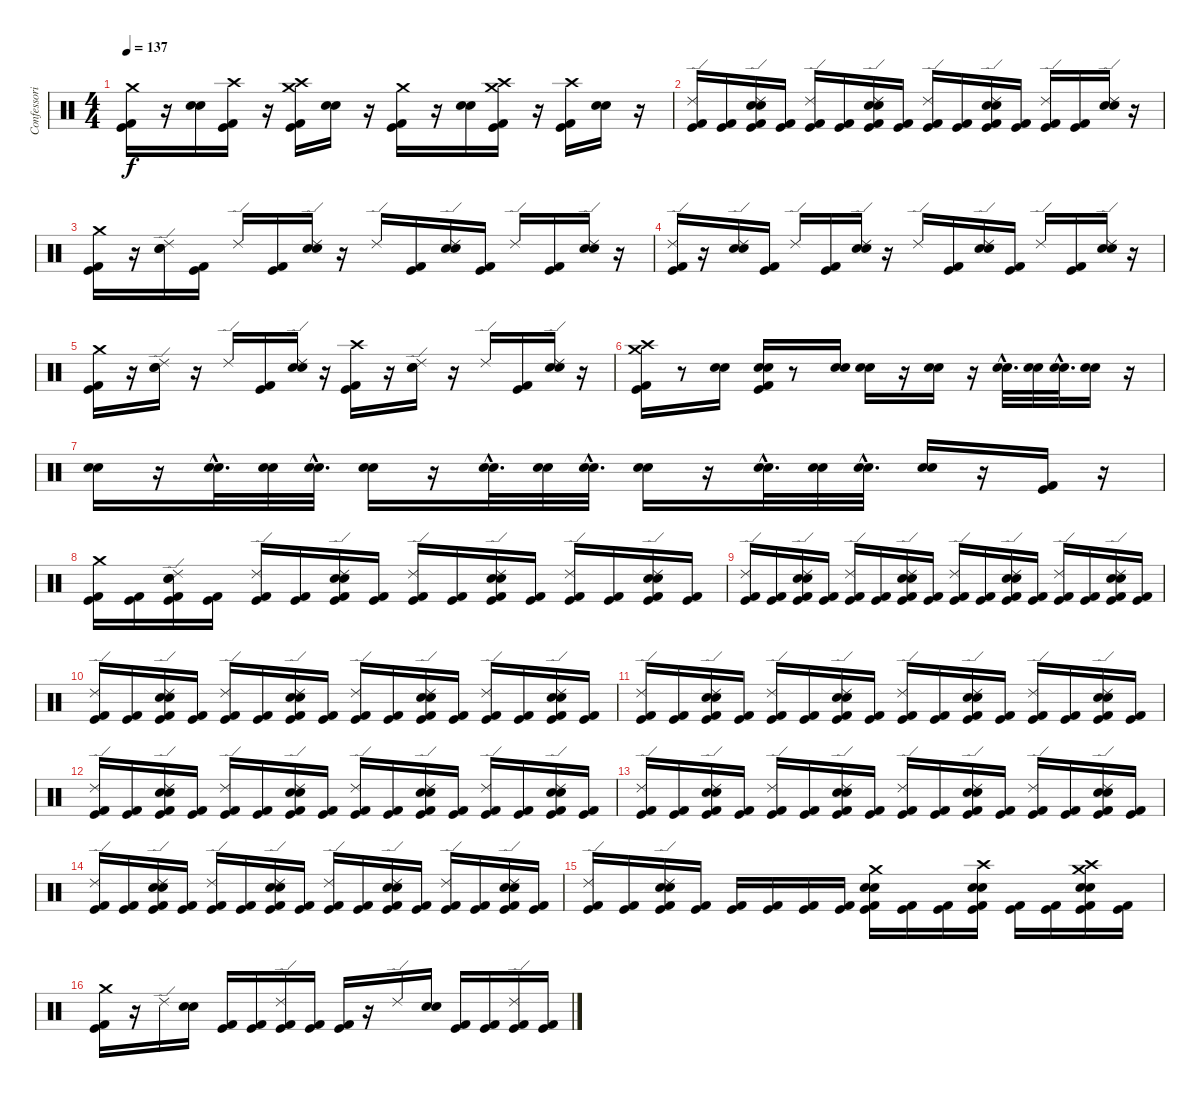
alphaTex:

\track ("Confessori" "Confessori") {instrument percussion}
\staff {score}
\articulation defaults
\ts (4 4)
\tempo 137
\clef neutral
\ks c
("Crash medium (hit)" "Kick (hit) 2" "Kick (hit)").16{dy f} r.16 ("Electric Snare (hit)" "Snare (hit) 2").16 ("Crash high (hit)" "Kick (hit)" "Kick (hit) 2").16 r.16 ("Crash high (hit)" "Crash medium (hit)" "Kick (hit) 2" "Kick (hit)").16 ("Electric Snare (hit)" "Snare (hit) 2").16 r.16 ("Crash medium (hit)" "Kick (hit) 2" "Kick (hit)").16 r.16 ("Electric Snare (hit)" "Snare (hit) 2").16 ("Crash medium (hit)" "Crash high (hit)" "Kick (hit) 2" "Kick (hit)").16 r.16 ("Crash high (hit)" "Kick (hit) 2" "Kick (hit)").16 ("Electric Snare (hit)" "Snare (hit) 2").16 r.16 |
("Ride (edge) 2" "Kick (hit) 2" "Kick (hit)").16 ("Kick (hit) 2" "Kick (hit)").16 ("Electric Snare (hit)" "Snare (hit) 2" "Ride (edge) 2" "Kick (hit) 2" "Kick (hit)").16 ("Kick (hit) 2" "Kick (hit)").16 ("Ride (edge) 2" "Kick (hit) 2" "Kick (hit)").16 ("Kick (hit) 2" "Kick (hit)").16 ("Electric Snare (hit)" "Snare (hit) 2" "Ride (edge) 2" "Kick (hit) 2" "Kick (hit)").16 ("Kick (hit) 2" "Kick (hit)").16 ("Ride (edge) 2" "Kick (hit) 2" "Kick (hit)").16 ("Kick (hit) 2" "Kick (hit)").16 ("Electric Snare (hit)" "Snare (hit) 2" "Ride (edge) 2" "Kick (hit) 2" "Kick (hit)").16 ("Kick (hit) 2" "Kick (hit)").16 ("Ride (edge) 2" "Kick (hit) 2" "Kick (hit)").16 ("Kick (hit) 2" "Kick (hit)").16 ("Ride (edge) 2" "Electric Snare (hit)" "Snare (hit) 2").16 r.16 |
("Crash medium (hit)" "Kick (hit) 2" "Kick (hit)").16 r.16 ("Electric Snare (hit)" "Snare (hit) 2" "Ride (edge) 2").16 ("Kick (hit) 2" "Kick (hit)").16 "Ride (edge) 2".16 ("Kick (hit) 2" "Kick (hit)").16 ("Electric Snare (hit)" "Snare (hit) 2" "Ride (edge) 2").16 r.16 "Ride (edge) 2".16 ("Kick (hit) 2" "Kick (hit)").16 ("Electric Snare (hit)" "Snare (hit) 2" "Ride (edge) 2").16 ("Kick (hit) 2" "Kick (hit)").16 "Ride (edge) 2".16 ("Kick (hit) 2" "Kick (hit)").16 ("Electric Snare (hit)" "Snare (hit) 2" "Ride (edge) 2").16 r.16 |
("Ride (edge) 2" "Kick (hit) 2" "Kick (hit)").16 r.16 ("Ride (edge) 2" "Electric Snare (hit)" "Snare (hit) 2").16 ("Kick (hit) 2" "Kick (hit)").16 "Ride (edge) 2".16 ("Kick (hit) 2" "Kick (hit)").16 ("Electric Snare (hit)" "Snare (hit) 2" "Ride (edge) 2").16 r.16 "Ride (edge) 2".16 ("Kick (hit) 2" "Kick (hit)").16 ("Electric Snare (hit)" "Snare (hit) 2" "Ride (edge) 2").16 ("Kick (hit) 2" "Kick (hit)").16 "Ride (edge) 2".16 ("Kick (hit) 2" "Kick (hit)").16 ("Electric Snare (hit)" "Snare (hit) 2" "Ride (edge) 2").16 r.16 |
("Kick (hit) 2" "Kick (hit)" "Crash medium (hit)").16 r.16 ("Electric Snare (hit)" "Snare (hit) 2" "Ride (edge) 2").16 r.16 "Ride (edge) 2".16 ("Kick (hit) 2" "Kick (hit)").16 ("Electric Snare (hit)" "Snare (hit) 2" "Ride (edge) 2").16 r.16 ("Crash high (hit)" "Kick (hit) 2" "Kick (hit)").16 r.16 ("Ride (edge) 2" "Electric Snare (hit)" "Snare (hit) 2").16 r.16 "Ride (edge) 2".16 ("Kick (hit)" "Kick (hit) 2").16 ("Ride (edge) 2" "Electric Snare (hit)" "Snare (hit) 2").16 r.16 |
("Crash high (hit)" "Crash medium (hit)" "Kick (hit) 2" "Kick (hit)").16 r.8 ("Electric Snare (hit)" "Snare (hit) 2").16 ("Electric Snare (hit)" "Snare (hit) 2" "Kick (hit) 2" "Kick (hit)").16 r.8 ("Electric Snare (hit)" "Snare (hit) 2").16 ("Electric Snare (hit)" "Snare (hit) 2").16 r.16 ("Electric Snare (hit)" "Snare (hit) 2").16 r.16 ("Electric Snare (hit)"{hac} "Snare (hit) 2"{hac}).32{d} ("Electric Snare (hit)" "Snare (hit) 2").32 ("Electric Snare (hit)"{hac} "Snare (hit) 2"{hac}).32{d} ("Electric Snare (hit)" "Snare (hit) 2").16 r.16 |
("Electric Snare (hit)" "Snare (hit) 2").16 r.16 ("Electric Snare (hit)"{hac} "Snare (hit) 2"{hac}).32{d} ("Electric Snare (hit)" "Snare (hit) 2").32 ("Electric Snare (hit)"{hac} "Snare (hit) 2"{hac}).32{d} ("Electric Snare (hit)" "Snare (hit) 2").16 r.16 ("Electric Snare (hit)"{hac} "Snare (hit) 2"{hac}).32{d} ("Electric Snare (hit)" "Snare (hit) 2").32 ("Electric Snare (hit)"{hac} "Snare (hit) 2"{hac}).32{d} ("Electric Snare (hit)" "Snare (hit) 2").16 r.16 ("Electric Snare (hit)"{hac} "Snare (hit) 2"{hac}).32{d} ("Electric Snare (hit)" "Snare (hit) 2").32 ("Electric Snare (hit)"{hac} "Snare (hit) 2"{hac}).32{d} ("Electric Snare (hit)" "Snare (hit) 2").16 r.16 ("Kick (hit) 2" "Kick (hit)").16 r.16 |
("Crash medium (hit)" "Kick (hit) 2" "Kick (hit)").16 ("Kick (hit) 2" "Kick (hit)").16 ("Electric Snare (hit)" "Snare (hit) 2" "Ride (edge) 2" "Kick (hit) 2" "Kick (hit)").16 ("Kick (hit) 2" "Kick (hit)").16 ("Ride (edge) 2" "Kick (hit) 2" "Kick (hit)").16 ("Kick (hit) 2" "Kick (hit)").16 ("Electric Snare (hit)" "Snare (hit) 2" "Ride (edge) 2" "Kick (hit) 2" "Kick (hit)").16 ("Kick (hit) 2" "Kick (hit)").16 ("Ride (edge) 2" "Kick (hit) 2" "Kick (hit)").16 ("Kick (hit) 2" "Kick (hit)").16 ("Electric Snare (hit)" "Snare (hit) 2" "Ride (edge) 2" "Kick (hit) 2" "Kick (hit)").16 ("Kick (hit) 2" "Kick (hit)").16 ("Ride (edge) 2" "Kick (hit) 2" "Kick (hit)").16 ("Kick (hit) 2" "Kick (hit)").16 ("Electric Snare (hit)" "Snare (hit) 2" "Ride (edge) 2" "Kick (hit) 2" "Kick (hit)").16 ("Kick (hit) 2" "Kick (hit)").16 |
("Ride (edge) 2" "Kick (hit) 2" "Kick (hit)").16 ("Kick (hit) 2" "Kick (hit)").16 ("Electric Snare (hit)" "Snare (hit) 2" "Ride (edge) 2" "Kick (hit) 2" "Kick (hit)").16 ("Kick (hit) 2" "Kick (hit)").16 ("Ride (edge) 2" "Kick (hit) 2" "Kick (hit)").16 ("Kick (hit) 2" "Kick (hit)").16 ("Electric Snare (hit)" "Snare (hit) 2" "Ride (edge) 2" "Kick (hit) 2" "Kick (hit)").16 ("Kick (hit) 2" "Kick (hit)").16 ("Ride (edge) 2" "Kick (hit) 2" "Kick (hit)").16 ("Kick (hit) 2" "Kick (hit)").16 ("Electric Snare (hit)" "Snare (hit) 2" "Ride (edge) 2" "Kick (hit) 2" "Kick (hit)").16 ("Kick (hit) 2" "Kick (hit)").16 ("Ride (edge) 2" "Kick (hit) 2" "Kick (hit)").16 ("Kick (hit) 2" "Kick (hit)").16 ("Electric Snare (hit)" "Snare (hit) 2" "Ride (edge) 2" "Kick (hit) 2" "Kick (hit)").16 ("Kick (hit) 2" "Kick (hit)").16 |
("Ride (edge) 2" "Kick (hit) 2" "Kick (hit)").16 ("Kick (hit) 2" "Kick (hit)").16 ("Electric Snare (hit)" "Snare (hit) 2" "Ride (edge) 2" "Kick (hit) 2" "Kick (hit)").16 ("Kick (hit) 2" "Kick (hit)").16 ("Ride (edge) 2" "Kick (hit) 2" "Kick (hit)").16 ("Kick (hit) 2" "Kick (hit)").16 ("Electric Snare (hit)" "Snare (hit) 2" "Ride (edge) 2" "Kick (hit) 2" "Kick (hit)").16 ("Kick (hit) 2" "Kick (hit)").16 ("Ride (edge) 2" "Kick (hit) 2" "Kick (hit)").16 ("Kick (hit) 2" "Kick (hit)").16 ("Electric Snare (hit)" "Snare (hit) 2" "Ride (edge) 2" "Kick (hit) 2" "Kick (hit)").16 ("Kick (hit) 2" "Kick (hit)").16 ("Ride (edge) 2" "Kick (hit) 2" "Kick (hit)").16 ("Kick (hit) 2" "Kick (hit)").16 ("Electric Snare (hit)" "Snare (hit) 2" "Ride (edge) 2" "Kick (hit) 2" "Kick (hit)").16 ("Kick (hit) 2" "Kick (hit)").16 |
("Ride (edge) 2" "Kick (hit) 2" "Kick (hit)").16 ("Kick (hit) 2" "Kick (hit)").16 ("Electric Snare (hit)" "Snare (hit) 2" "Ride (edge) 2" "Kick (hit) 2" "Kick (hit)").16 ("Kick (hit) 2" "Kick (hit)").16 ("Ride (edge) 2" "Kick (hit) 2" "Kick (hit)").16 ("Kick (hit) 2" "Kick (hit)").16 ("Electric Snare (hit)" "Snare (hit) 2" "Ride (edge) 2" "Kick (hit) 2" "Kick (hit)").16 ("Kick (hit) 2" "Kick (hit)").16 ("Ride (edge) 2" "Kick (hit) 2" "Kick (hit)").16 ("Kick (hit) 2" "Kick (hit)").16 ("Electric Snare (hit)" "Snare (hit) 2" "Ride (edge) 2" "Kick (hit) 2" "Kick (hit)").16 ("Kick (hit) 2" "Kick (hit)").16 ("Ride (edge) 2" "Kick (hit) 2" "Kick (hit)").16 ("Kick (hit) 2" "Kick (hit)").16 ("Electric Snare (hit)" "Snare (hit) 2" "Ride (edge) 2" "Kick (hit) 2" "Kick (hit)").16 ("Kick (hit) 2" "Kick (hit)").16 |
("Ride (edge) 2" "Kick (hit) 2" "Kick (hit)").16 ("Kick (hit) 2" "Kick (hit)").16 ("Electric Snare (hit)" "Snare (hit) 2" "Ride (edge) 2" "Kick (hit) 2" "Kick (hit)").16 ("Kick (hit) 2" "Kick (hit)").16 ("Ride (edge) 2" "Kick (hit) 2" "Kick (hit)").16 ("Kick (hit) 2" "Kick (hit)").16 ("Electric Snare (hit)" "Snare (hit) 2" "Ride (edge) 2" "Kick (hit) 2" "Kick (hit)").16 ("Kick (hit) 2" "Kick (hit)").16 ("Ride (edge) 2" "Kick (hit) 2" "Kick (hit)").16 ("Kick (hit) 2" "Kick (hit)").16 ("Electric Snare (hit)" "Snare (hit) 2" "Ride (edge) 2" "Kick (hit) 2" "Kick (hit)").16 ("Kick (hit) 2" "Kick (hit)").16 ("Ride (edge) 2" "Kick (hit) 2" "Kick (hit)").16 ("Kick (hit) 2" "Kick (hit)").16 ("Electric Snare (hit)" "Snare (hit) 2" "Ride (edge) 2" "Kick (hit) 2" "Kick (hit)").16 ("Kick (hit) 2" "Kick (hit)").16 |
("Ride (edge) 2" "Kick (hit) 2" "Kick (hit)").16 ("Kick (hit) 2" "Kick (hit)").16 ("Electric Snare (hit)" "Snare (hit) 2" "Ride (edge) 2" "Kick (hit) 2" "Kick (hit)").16 ("Kick (hit) 2" "Kick (hit)").16 ("Ride (edge) 2" "Kick (hit) 2" "Kick (hit)").16 ("Kick (hit) 2" "Kick (hit)").16 ("Electric Snare (hit)" "Snare (hit) 2" "Ride (edge) 2" "Kick (hit) 2" "Kick (hit)").16 ("Kick (hit) 2" "Kick (hit)").16 ("Ride (edge) 2" "Kick (hit) 2" "Kick (hit)").16 ("Kick (hit) 2" "Kick (hit)").16 ("Electric Snare (hit)" "Snare (hit) 2" "Ride (edge) 2" "Kick (hit) 2" "Kick (hit)").16 ("Kick (hit) 2" "Kick (hit)").16 ("Ride (edge) 2" "Kick (hit) 2" "Kick (hit)").16 ("Kick (hit) 2" "Kick (hit)").16 ("Electric Snare (hit)" "Snare (hit) 2" "Ride (edge) 2" "Kick (hit) 2" "Kick (hit)").16 ("Kick (hit) 2" "Kick (hit)").16 |
("Ride (edge) 2" "Kick (hit) 2" "Kick (hit)").16 ("Kick (hit) 2" "Kick (hit)").16 ("Electric Snare (hit)" "Snare (hit) 2" "Ride (edge) 2" "Kick (hit) 2" "Kick (hit)").16 ("Kick (hit) 2" "Kick (hit)").16 ("Ride (edge) 2" "Kick (hit) 2" "Kick (hit)").16 ("Kick (hit) 2" "Kick (hit)").16 ("Electric Snare (hit)" "Snare (hit) 2" "Ride (edge) 2" "Kick (hit) 2" "Kick (hit)").16 ("Kick (hit) 2" "Kick (hit)").16 ("Ride (edge) 2" "Kick (hit) 2" "Kick (hit)").16 ("Kick (hit) 2" "Kick (hit)").16 ("Electric Snare (hit)" "Snare (hit) 2" "Ride (edge) 2" "Kick (hit) 2" "Kick (hit)").16 ("Kick (hit) 2" "Kick (hit)").16 ("Ride (edge) 2" "Kick (hit) 2" "Kick (hit)").16 ("Kick (hit) 2" "Kick (hit)").16 ("Electric Snare (hit)" "Snare (hit) 2" "Ride (edge) 2" "Kick (hit) 2" "Kick (hit)").16 ("Kick (hit) 2" "Kick (hit)").16 |
("Ride (edge) 2" "Kick (hit) 2" "Kick (hit)").16 ("Kick (hit) 2" "Kick (hit)").16 ("Electric Snare (hit)" "Snare (hit) 2" "Ride (edge) 2" "Kick (hit) 2" "Kick (hit)").16 ("Kick (hit) 2" "Kick (hit)").16 ("Kick (hit) 2" "Kick (hit)").16 ("Kick (hit) 2" "Kick (hit)").16 ("Kick (hit) 2" "Kick (hit)").16 ("Kick (hit) 2" "Kick (hit)").16 ("Electric Snare (hit)" "Snare (hit) 2" "Crash medium (hit)" "Kick (hit) 2" "Kick (hit)").16 ("Kick (hit) 2" "Kick (hit)").16 ("Kick (hit) 2" "Kick (hit)").16 ("Electric Snare (hit)" "Snare (hit) 2" "Crash high (hit)" "Kick (hit) 2" "Kick (hit)").16 ("Kick (hit) 2" "Kick (hit)").16 ("Kick (hit) 2" "Kick (hit)").16 ("Electric Snare (hit)" "Snare (hit) 2" "Crash high (hit)" "Crash medium (hit)" "Kick (hit) 2" "Kick (hit)").16 ("Kick (hit) 2" "Kick (hit)").16 |
("Crash medium (hit)" "Kick (hit) 2" "Kick (hit)").16 r.16 "Ride (edge) 2".16 ("Electric Snare (hit)" "Snare (hit) 2").16 ("Kick (hit) 2" "Kick (hit)").16 ("Kick (hit) 2" "Kick (hit)").16 ("Ride (edge) 2" "Kick (hit) 2" "Kick (hit)").16 ("Kick (hit) 2" "Kick (hit)").16 ("Kick (hit) 2" "Kick (hit)").16 r.16 "Ride (edge) 2".16 ("Electric Snare (hit)" "Snare (hit) 2").16 ("Kick (hit) 2" "Kick (hit)").16 ("Kick (hit) 2" "Kick (hit)").16 ("Ride (edge) 2" "Kick (hit) 2" "Kick (hit)").16 ("Kick (hit) 2" "Kick (hit)").16
